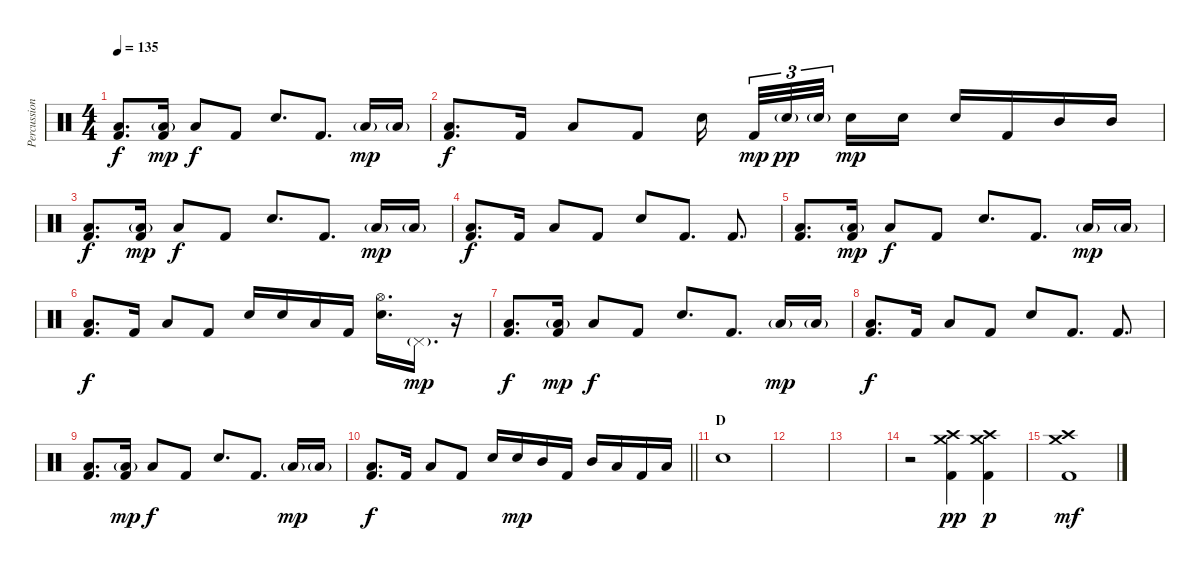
\track ("Percussion" "Percussion") {instrument percussion}
\staff {score}
\articulation defaults
\ts (4 4)
\tempo 135
\clef neutral
\ks c
("Low Floor Tom (hit)" "Kick (hit) 2").8{d dy f} ("Low Floor Tom (hit)"{g} "Kick (hit) 2").16{dy mp} "Low Floor Tom (hit)".8{dy f} "Kick (hit) 2".8 "Electric Snare (hit)".8{d} "Kick (hit) 2".8{d} "Low Floor Tom (hit)"{g}.16{dy mp} "Low Floor Tom (hit)"{g}.16 |
("Low Floor Tom (hit)" "Kick (hit) 2").8{d dy f} "Kick (hit) 2".16 "Low Floor Tom (hit)".8 "Kick (hit) 2".8 "Electric Snare (hit)".16{beam splitsecondary} "Kick (hit) 2".32{tu (3 2) dy mp} "Electric Snare (hit)"{g}.32{tu (3 2) dy pp} "Electric Snare (hit)"{g}.32{tu (3 2) beam splitsecondary} "Electric Snare (hit)".16{dy mp} "Electric Snare (hit)".16 "Electric Snare (hit)".16 "Kick (hit) 2".16 "Mid Tom (hit)".16 "Mid Tom (hit)".16 |
("Low Floor Tom (hit)" "Kick (hit) 2").8{d dy f} ("Low Floor Tom (hit)"{g} "Kick (hit) 2").16{dy mp} "Low Floor Tom (hit)".8{dy f} "Kick (hit) 2".8 "Electric Snare (hit)".8{d} "Kick (hit) 2".8{d} "Low Floor Tom (hit)"{g}.16{dy mp} "Low Floor Tom (hit)"{g}.16 |
("Low Floor Tom (hit)" "Kick (hit) 2").8{d dy f} "Kick (hit) 2".16 "Low Floor Tom (hit)".8 "Kick (hit) 2".8 "Electric Snare (hit)".8 "Kick (hit) 2".8{d} "Kick (hit) 2".8{d} |
("Low Floor Tom (hit)" "Kick (hit) 2").8{d} ("Low Floor Tom (hit)"{g} "Kick (hit) 2").16{dy mp} "Low Floor Tom (hit)".8{dy f} "Kick (hit) 2".8 "Electric Snare (hit)".8{d} "Kick (hit) 2".8{d} "Low Floor Tom (hit)"{g}.16{dy mp} "Low Floor Tom (hit)"{g}.16 |
("Low Floor Tom (hit)" "Kick (hit) 2").8{d dy f} "Kick (hit) 2".16 "Low Floor Tom (hit)".8 "Kick (hit) 2".8 "Electric Snare (hit)".16 "Electric Snare (hit)".16 "Low Floor Tom (hit)".16 "Kick (hit) 2".16 ("Hi-Hat (open)" "Electric Snare (hit)").16{d} "Pedal Hi-Hat (hit)"{g}.16{d dy mp} r.16 |
("Low Floor Tom (hit)" "Kick (hit) 2").8{d dy f} ("Low Floor Tom (hit)"{g} "Kick (hit) 2").16{dy mp} "Low Floor Tom (hit)".8{dy f} "Kick (hit) 2".8 "Electric Snare (hit)".8{d} "Kick (hit) 2".8{d} "Low Floor Tom (hit)"{g}.16{dy mp} "Low Floor Tom (hit)"{g}.16 |
("Low Floor Tom (hit)" "Kick (hit) 2").8{d dy f} "Kick (hit) 2".16 "Low Floor Tom (hit)".8 "Kick (hit) 2".8 "Electric Snare (hit)".8 "Kick (hit) 2".8{d} "Kick (hit) 2".8{d} |
("Low Floor Tom (hit)" "Kick (hit) 2").8{d} ("Low Floor Tom (hit)"{g} "Kick (hit) 2").16{dy mp} "Low Floor Tom (hit)".8{dy f} "Kick (hit) 2".8 "Electric Snare (hit)".8{d} "Kick (hit) 2".8{d} "Low Floor Tom (hit)"{g}.16{dy mp} "Low Floor Tom (hit)"{g}.16 |
\barLineRight lightlight
("Low Floor Tom (hit)" "Kick (hit) 2").8{d dy f} "Kick (hit) 2".16 "Low Floor Tom (hit)".8 "Kick (hit) 2".8 "Electric Snare (hit)".16 "Electric Snare (hit)".16{dy mp} "Mid Tom (hit)".16 "Kick (hit) 2".16 "Mid Tom (hit)".16 "Low Floor Tom (hit)".16 "Kick (hit) 2".16 "Low Floor Tom (hit)".16 |
\section ("" "D")
"Electric Snare (hit)".1 |
|
|
r.2 ("Crash medium (hit)" "Crash high (hit)" "Kick (hit) 2").4{dy pp} ("Crash medium (hit)" "Crash high (hit)" "Kick (hit) 2").4{dy p} |
("Crash medium (hit)" "Crash high (hit)" "Kick (hit) 2").1{dy mf}
